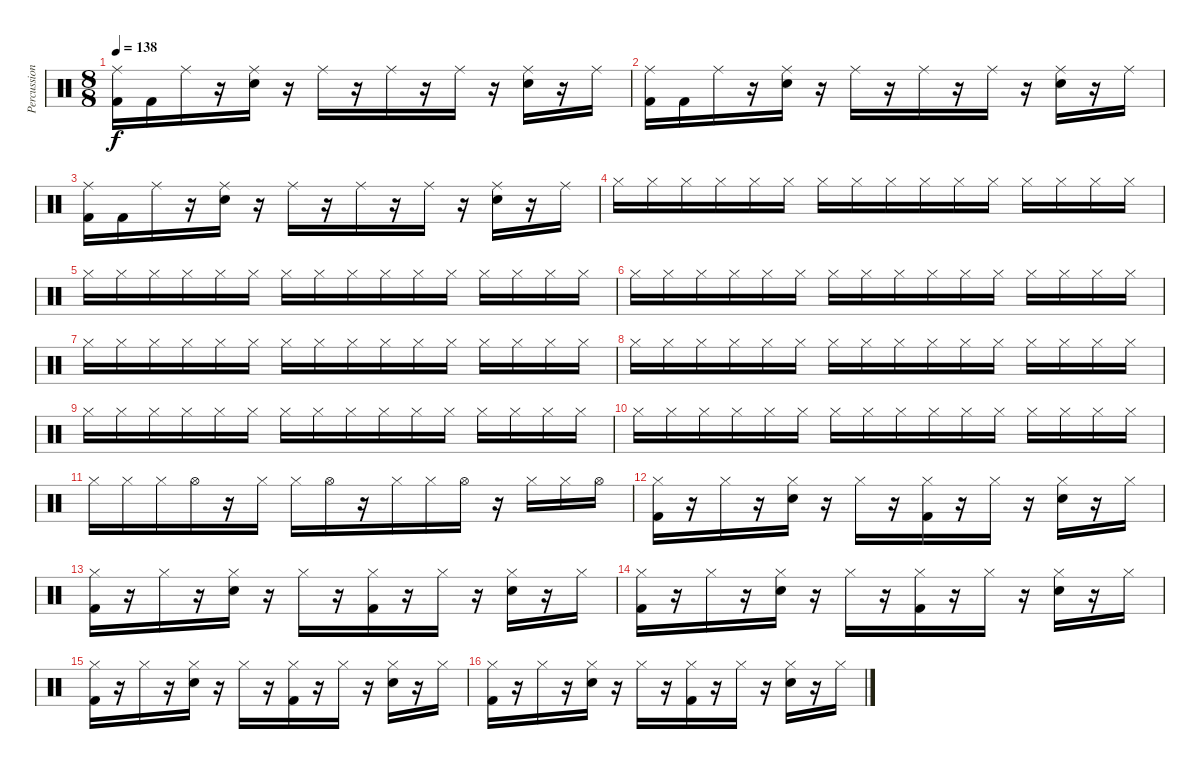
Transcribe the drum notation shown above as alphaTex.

\track ("Percussion" "Percussion") {instrument percussion}
\staff {score}
\articulation defaults
\ts (8 8)
\tempo 138
\clef neutral
\ks c
("Ride (middle)" "Kick (hit) 2").16{dy f} "Kick (hit) 2".16 "Ride (middle)".16 r.16 ("Ride (middle)" "Electric Snare (hit)").16 r.16 "Ride (middle)".16 r.16 "Ride (middle)".16 r.16 "Ride (middle)".16 r.16 ("Ride (middle)" "Electric Snare (hit)").16 r.16 "Ride (middle)".16 |
("Ride (middle)" "Kick (hit) 2").16 "Kick (hit) 2".16 "Ride (middle)".16 r.16 ("Ride (middle)" "Electric Snare (hit)").16 r.16 "Ride (middle)".16 r.16 "Ride (middle)".16 r.16 "Ride (middle)".16 r.16 ("Ride (middle)" "Electric Snare (hit)").16 r.16 "Ride (middle)".16 |
("Ride (middle)" "Kick (hit) 2").16 "Kick (hit) 2".16 "Ride (middle)".16 r.16 ("Ride (middle)" "Electric Snare (hit)").16 r.16 "Ride (middle)".16 r.16 "Ride (middle)".16 r.16 "Ride (middle)".16 r.16 ("Ride (middle)" "Electric Snare (hit)").16 r.16 "Ride (middle)".16 |
"Hi-Hat (closed)".16 "Hi-Hat (closed)".16 "Hi-Hat (closed)".16 "Hi-Hat (closed)".16 "Hi-Hat (closed)".16 "Hi-Hat (closed)".16 "Hi-Hat (closed)".16 "Hi-Hat (closed)".16 "Hi-Hat (closed)".16 "Hi-Hat (closed)".16 "Hi-Hat (closed)".16 "Hi-Hat (closed)".16 "Hi-Hat (closed)".16 "Hi-Hat (closed)".16 "Hi-Hat (closed)".16 "Hi-Hat (closed)".16 |
"Hi-Hat (closed)".16 "Hi-Hat (closed)".16 "Hi-Hat (closed)".16 "Hi-Hat (closed)".16 "Hi-Hat (closed)".16 "Hi-Hat (closed)".16 "Hi-Hat (closed)".16 "Hi-Hat (closed)".16 "Hi-Hat (closed)".16 "Hi-Hat (closed)".16 "Hi-Hat (closed)".16 "Hi-Hat (closed)".16 "Hi-Hat (closed)".16 "Hi-Hat (closed)".16 "Hi-Hat (closed)".16 "Hi-Hat (closed)".16 |
"Hi-Hat (closed)".16 "Hi-Hat (closed)".16 "Hi-Hat (closed)".16 "Hi-Hat (closed)".16 "Hi-Hat (closed)".16 "Hi-Hat (closed)".16 "Hi-Hat (closed)".16 "Hi-Hat (closed)".16 "Hi-Hat (closed)".16 "Hi-Hat (closed)".16 "Hi-Hat (closed)".16 "Hi-Hat (closed)".16 "Hi-Hat (closed)".16 "Hi-Hat (closed)".16 "Hi-Hat (closed)".16 "Hi-Hat (closed)".16 |
"Hi-Hat (closed)".16 "Hi-Hat (closed)".16 "Hi-Hat (closed)".16 "Hi-Hat (closed)".16 "Hi-Hat (closed)".16 "Hi-Hat (closed)".16 "Hi-Hat (closed)".16 "Hi-Hat (closed)".16 "Hi-Hat (closed)".16 "Hi-Hat (closed)".16 "Hi-Hat (closed)".16 "Hi-Hat (closed)".16 "Hi-Hat (closed)".16 "Hi-Hat (closed)".16 "Hi-Hat (closed)".16 "Hi-Hat (closed)".16 |
"Hi-Hat (closed)".16 "Hi-Hat (closed)".16 "Hi-Hat (closed)".16 "Hi-Hat (closed)".16 "Hi-Hat (closed)".16 "Hi-Hat (closed)".16 "Hi-Hat (closed)".16 "Hi-Hat (closed)".16 "Hi-Hat (closed)".16 "Hi-Hat (closed)".16 "Hi-Hat (closed)".16 "Hi-Hat (closed)".16 "Hi-Hat (closed)".16 "Hi-Hat (closed)".16 "Hi-Hat (closed)".16 "Hi-Hat (closed)".16 |
"Hi-Hat (closed)".16 "Hi-Hat (closed)".16 "Hi-Hat (closed)".16 "Hi-Hat (closed)".16 "Hi-Hat (closed)".16 "Hi-Hat (closed)".16 "Hi-Hat (closed)".16 "Hi-Hat (closed)".16 "Hi-Hat (closed)".16 "Hi-Hat (closed)".16 "Hi-Hat (closed)".16 "Hi-Hat (closed)".16 "Hi-Hat (closed)".16 "Hi-Hat (closed)".16 "Hi-Hat (closed)".16 "Hi-Hat (closed)".16 |
"Hi-Hat (closed)".16 "Hi-Hat (closed)".16 "Hi-Hat (closed)".16 "Hi-Hat (closed)".16 "Hi-Hat (closed)".16 "Hi-Hat (closed)".16 "Hi-Hat (closed)".16 "Hi-Hat (closed)".16 "Hi-Hat (closed)".16 "Hi-Hat (closed)".16 "Hi-Hat (closed)".16 "Hi-Hat (closed)".16 "Hi-Hat (closed)".16 "Hi-Hat (closed)".16 "Hi-Hat (closed)".16 "Hi-Hat (closed)".16 |
"Hi-Hat (closed)".16 "Hi-Hat (closed)".16 "Hi-Hat (closed)".16 "Hi-Hat (open)".16 r.16 "Hi-Hat (closed)".16 "Hi-Hat (closed)".16 "Hi-Hat (open)".16 r.16 "Hi-Hat (closed)".16 "Hi-Hat (closed)".16 "Hi-Hat (open)".16 r.16 "Hi-Hat (closed)".16 "Hi-Hat (closed)".16 "Hi-Hat (open)".16 |
("Hi-Hat (closed)" "Kick (hit) 2").16 r.16 "Hi-Hat (closed)".16 r.16 ("Hi-Hat (closed)" "Electric Snare (hit)").16 r.16 "Hi-Hat (closed)".16 r.16 ("Hi-Hat (closed)" "Kick (hit) 2").16 r.16 "Hi-Hat (closed)".16 r.16 ("Hi-Hat (closed)" "Electric Snare (hit)").16 r.16 "Hi-Hat (closed)".16 |
("Hi-Hat (closed)" "Kick (hit) 2").16 r.16 "Hi-Hat (closed)".16 r.16 ("Hi-Hat (closed)" "Electric Snare (hit)").16 r.16 "Hi-Hat (closed)".16 r.16 ("Hi-Hat (closed)" "Kick (hit) 2").16 r.16 "Hi-Hat (closed)".16 r.16 ("Hi-Hat (closed)" "Electric Snare (hit)").16 r.16 "Hi-Hat (closed)".16 |
("Hi-Hat (closed)" "Kick (hit) 2").16 r.16 "Hi-Hat (closed)".16 r.16 ("Hi-Hat (closed)" "Electric Snare (hit)").16 r.16 "Hi-Hat (closed)".16 r.16 ("Hi-Hat (closed)" "Kick (hit) 2").16 r.16 "Hi-Hat (closed)".16 r.16 ("Hi-Hat (closed)" "Electric Snare (hit)").16 r.16 "Hi-Hat (closed)".16 |
("Hi-Hat (closed)" "Kick (hit) 2").16 r.16 "Hi-Hat (closed)".16 r.16 ("Hi-Hat (closed)" "Electric Snare (hit)").16 r.16 "Hi-Hat (closed)".16 r.16 ("Hi-Hat (closed)" "Kick (hit) 2").16 r.16 "Hi-Hat (closed)".16 r.16 ("Hi-Hat (closed)" "Electric Snare (hit)").16 r.16 "Hi-Hat (closed)".16 |
("Hi-Hat (closed)" "Kick (hit) 2").16 r.16 "Hi-Hat (closed)".16 r.16 ("Hi-Hat (closed)" "Electric Snare (hit)").16 r.16 "Hi-Hat (closed)".16 r.16 ("Hi-Hat (closed)" "Kick (hit) 2").16 r.16 "Hi-Hat (closed)".16 r.16 ("Hi-Hat (closed)" "Electric Snare (hit)").16 r.16 "Hi-Hat (closed)".16
